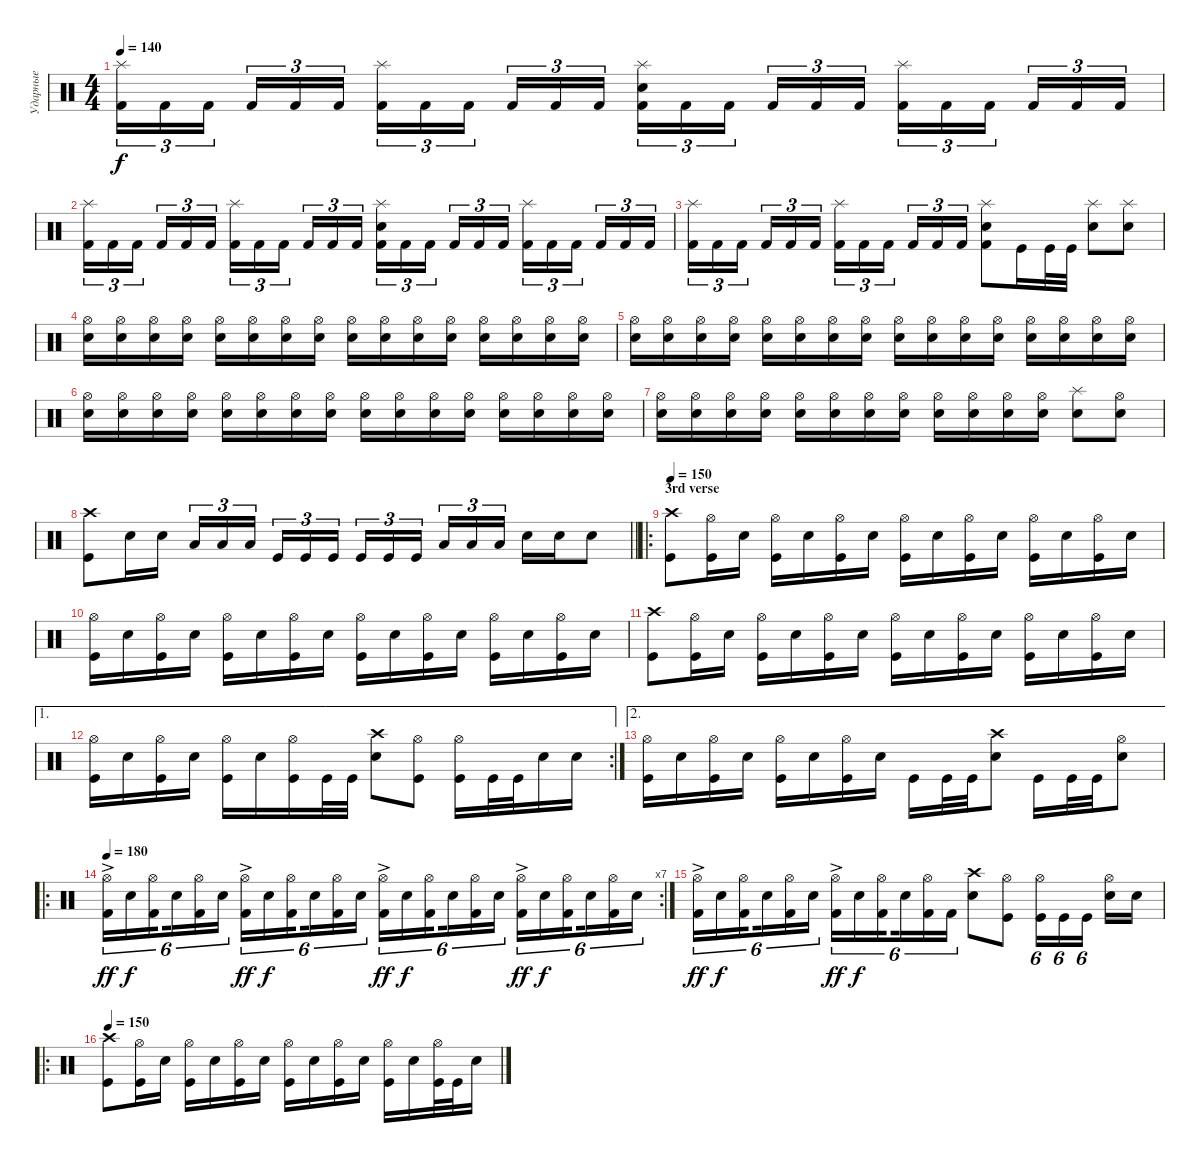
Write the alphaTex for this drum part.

\track ("Ударные" "Ударные") {instrument percussion}
\staff {score}
\articulation defaults
\ts (4 4)
\tempo 140
\clef neutral
\ks c
("Splash (hit)" "Kick (hit) 2").16{tu (3 2) dy f} "Kick (hit) 2".16{tu (3 2)} "Kick (hit) 2".16{tu (3 2) beam splitsecondary} "Kick (hit) 2".16{tu (3 2)} "Kick (hit) 2".16{tu (3 2)} "Kick (hit) 2".16{tu (3 2)} ("Splash (hit)" "Kick (hit) 2").16{tu (3 2)} "Kick (hit) 2".16{tu (3 2)} "Kick (hit) 2".16{tu (3 2) beam splitsecondary} "Kick (hit) 2".16{tu (3 2)} "Kick (hit) 2".16{tu (3 2)} "Kick (hit) 2".16{tu (3 2)} ("Splash (hit)" "Snare (hit) 2" "Kick (hit) 2").16{tu (3 2)} "Kick (hit) 2".16{tu (3 2)} "Kick (hit) 2".16{tu (3 2) beam splitsecondary} "Kick (hit) 2".16{tu (3 2)} "Kick (hit) 2".16{tu (3 2)} "Kick (hit) 2".16{tu (3 2)} ("Splash (hit)" "Kick (hit) 2").16{tu (3 2)} "Kick (hit) 2".16{tu (3 2)} "Kick (hit) 2".16{tu (3 2) beam splitsecondary} "Kick (hit) 2".16{tu (3 2)} "Kick (hit) 2".16{tu (3 2)} "Kick (hit) 2".16{tu (3 2)} |
("Splash (hit)" "Kick (hit) 2").16{tu (3 2)} "Kick (hit) 2".16{tu (3 2)} "Kick (hit) 2".16{tu (3 2) beam splitsecondary} "Kick (hit) 2".16{tu (3 2)} "Kick (hit) 2".16{tu (3 2)} "Kick (hit) 2".16{tu (3 2)} ("Splash (hit)" "Kick (hit) 2").16{tu (3 2)} "Kick (hit) 2".16{tu (3 2)} "Kick (hit) 2".16{tu (3 2) beam splitsecondary} "Kick (hit) 2".16{tu (3 2)} "Kick (hit) 2".16{tu (3 2)} "Kick (hit) 2".16{tu (3 2)} ("Splash (hit)" "Snare (hit) 2" "Kick (hit) 2").16{tu (3 2)} "Kick (hit) 2".16{tu (3 2)} "Kick (hit) 2".16{tu (3 2) beam splitsecondary} "Kick (hit) 2".16{tu (3 2)} "Kick (hit) 2".16{tu (3 2)} "Kick (hit) 2".16{tu (3 2)} ("Splash (hit)" "Kick (hit) 2").16{tu (3 2)} "Kick (hit) 2".16{tu (3 2)} "Kick (hit) 2".16{tu (3 2) beam splitsecondary} "Kick (hit) 2".16{tu (3 2)} "Kick (hit) 2".16{tu (3 2)} "Kick (hit) 2".16{tu (3 2)} |
("Splash (hit)" "Kick (hit) 2").16{tu (3 2)} "Kick (hit) 2".16{tu (3 2)} "Kick (hit) 2".16{tu (3 2) beam splitsecondary} "Kick (hit) 2".16{tu (3 2)} "Kick (hit) 2".16{tu (3 2)} "Kick (hit) 2".16{tu (3 2)} ("Splash (hit)" "Kick (hit) 2").16{tu (3 2)} "Kick (hit) 2".16{tu (3 2)} "Kick (hit) 2".16{tu (3 2) beam splitsecondary} "Kick (hit) 2".16{tu (3 2)} "Kick (hit) 2".16{tu (3 2)} "Kick (hit) 2".16{tu (3 2)} ("Splash (hit)" "Snare (hit) 2" "Kick (hit) 2").8 "Kick (hit)".16 "Kick (hit)".32 "Kick (hit)".32 ("Splash (hit)" "Snare (hit) 2").8 ("Splash (hit)" "Snare (hit) 2").8 |
("Snare (hit) 2" "Hi-Hat (open)").16 ("Snare (hit) 2" "Hi-Hat (open)").16 ("Snare (hit) 2" "Hi-Hat (open)").16 ("Snare (hit) 2" "Hi-Hat (open)").16 ("Snare (hit) 2" "Hi-Hat (open)").16 ("Snare (hit) 2" "Hi-Hat (open)").16 ("Snare (hit) 2" "Hi-Hat (open)").16 ("Snare (hit) 2" "Hi-Hat (open)").16 ("Snare (hit) 2" "Hi-Hat (open)").16 ("Snare (hit) 2" "Hi-Hat (open)").16 ("Snare (hit) 2" "Hi-Hat (open)").16 ("Snare (hit) 2" "Hi-Hat (open)").16 ("Snare (hit) 2" "Hi-Hat (open)").16 ("Snare (hit) 2" "Hi-Hat (open)").16 ("Snare (hit) 2" "Hi-Hat (open)").16 ("Snare (hit) 2" "Hi-Hat (open)").16 |
("Snare (hit) 2" "Hi-Hat (open)").16 ("Snare (hit) 2" "Hi-Hat (open)").16 ("Snare (hit) 2" "Hi-Hat (open)").16 ("Snare (hit) 2" "Hi-Hat (open)").16 ("Snare (hit) 2" "Hi-Hat (open)").16 ("Snare (hit) 2" "Hi-Hat (open)").16 ("Snare (hit) 2" "Hi-Hat (open)").16 ("Snare (hit) 2" "Hi-Hat (open)").16 ("Snare (hit) 2" "Hi-Hat (open)").16 ("Snare (hit) 2" "Hi-Hat (open)").16 ("Snare (hit) 2" "Hi-Hat (open)").16 ("Snare (hit) 2" "Hi-Hat (open)").16 ("Snare (hit) 2" "Hi-Hat (open)").16 ("Snare (hit) 2" "Hi-Hat (open)").16 ("Snare (hit) 2" "Hi-Hat (open)").16 ("Snare (hit) 2" "Hi-Hat (open)").16 |
("Snare (hit) 2" "Hi-Hat (open)").16 ("Snare (hit) 2" "Hi-Hat (open)").16 ("Snare (hit) 2" "Hi-Hat (open)").16 ("Snare (hit) 2" "Hi-Hat (open)").16 ("Snare (hit) 2" "Hi-Hat (open)").16 ("Snare (hit) 2" "Hi-Hat (open)").16 ("Snare (hit) 2" "Hi-Hat (open)").16 ("Snare (hit) 2" "Hi-Hat (open)").16 ("Snare (hit) 2" "Hi-Hat (open)").16 ("Snare (hit) 2" "Hi-Hat (open)").16 ("Snare (hit) 2" "Hi-Hat (open)").16 ("Snare (hit) 2" "Hi-Hat (open)").16 ("Snare (hit) 2" "Hi-Hat (open)").16 ("Snare (hit) 2" "Hi-Hat (open)").16 ("Snare (hit) 2" "Hi-Hat (open)").16 ("Snare (hit) 2" "Hi-Hat (open)").16 |
("Snare (hit) 2" "Hi-Hat (open)").16 ("Snare (hit) 2" "Hi-Hat (open)").16 ("Snare (hit) 2" "Hi-Hat (open)").16 ("Snare (hit) 2" "Hi-Hat (open)").16 ("Snare (hit) 2" "Hi-Hat (open)").16 ("Snare (hit) 2" "Hi-Hat (open)").16 ("Snare (hit) 2" "Hi-Hat (open)").16 ("Snare (hit) 2" "Hi-Hat (open)").16 ("Snare (hit) 2" "Hi-Hat (open)").16 ("Snare (hit) 2" "Hi-Hat (open)").16 ("Snare (hit) 2" "Hi-Hat (open)").16 ("Snare (hit) 2" "Hi-Hat (open)").16 ("Splash (hit)" "Snare (hit) 2").8 ("Hi-Hat (open)" "Snare (hit) 2").8 |
\barLineRight lightlight
("Crash high (hit)" "Kick (hit)").8 "Snare (hit) 2".16 "Snare (hit) 2".16 "Low Floor Tom (hit)".16{tu (3 2)} "Low Floor Tom (hit)".16{tu (3 2)} "Low Floor Tom (hit)".16{tu (3 2) beam splitsecondary} "Kick (hit)".16{tu (3 2)} "Kick (hit)".16{tu (3 2)} "Kick (hit)".16{tu (3 2)} "Kick (hit)".16{tu (3 2)} "Kick (hit)".16{tu (3 2)} "Kick (hit)".16{tu (3 2) beam splitsecondary} "Low Floor Tom (hit)".16{tu (3 2)} "Low Floor Tom (hit)".16{tu (3 2)} "Low Floor Tom (hit)".16{tu (3 2)} "Snare (hit) 2".16 "Snare (hit) 2".16 "Snare (hit) 2".8 |
\ro
\section ("" "3rd verse")
\tempo 150
("Crash high (hit)" "Kick (hit)").8 ("Hi-Hat (open)" "Kick (hit)").16 "Snare (hit) 2".16 ("Hi-Hat (open)" "Kick (hit)").16 "Snare (hit) 2".16 ("Hi-Hat (open)" "Kick (hit)").16 "Snare (hit) 2".16 ("Hi-Hat (open)" "Kick (hit)").16 "Snare (hit) 2".16 ("Hi-Hat (open)" "Kick (hit)").16 "Snare (hit) 2".16 ("Hi-Hat (open)" "Kick (hit)").16 "Snare (hit) 2".16 ("Hi-Hat (open)" "Kick (hit)").16 "Snare (hit) 2".16 |
("Hi-Hat (open)" "Kick (hit)").16 "Snare (hit) 2".16 ("Hi-Hat (open)" "Kick (hit)").16 "Snare (hit) 2".16 ("Hi-Hat (open)" "Kick (hit)").16 "Snare (hit) 2".16 ("Hi-Hat (open)" "Kick (hit)").16 "Snare (hit) 2".16 ("Hi-Hat (open)" "Kick (hit)").16 "Snare (hit) 2".16 ("Hi-Hat (open)" "Kick (hit)").16 "Snare (hit) 2".16 ("Hi-Hat (open)" "Kick (hit)").16 "Snare (hit) 2".16 ("Hi-Hat (open)" "Kick (hit)").16 "Snare (hit) 2".16 |
("Crash high (hit)" "Kick (hit)").8 ("Hi-Hat (open)" "Kick (hit)").16 "Snare (hit) 2".16 ("Hi-Hat (open)" "Kick (hit)").16 "Snare (hit) 2".16 ("Hi-Hat (open)" "Kick (hit)").16 "Snare (hit) 2".16 ("Hi-Hat (open)" "Kick (hit)").16 "Snare (hit) 2".16 ("Hi-Hat (open)" "Kick (hit)").16 "Snare (hit) 2".16 ("Hi-Hat (open)" "Kick (hit)").16 "Snare (hit) 2".16 ("Hi-Hat (open)" "Kick (hit)").16 "Snare (hit) 2".16 |
\ae 1
\rc 2
("Hi-Hat (open)" "Kick (hit)").16 "Snare (hit) 2".16 ("Hi-Hat (open)" "Kick (hit)").16 "Snare (hit) 2".16 ("Hi-Hat (open)" "Kick (hit)").16 "Snare (hit) 2".16 ("Hi-Hat (open)" "Kick (hit)").16 "Kick (hit)".32 "Kick (hit)".32 ("Crash high (hit)" "Snare (hit) 2").8 ("Hi-Hat (open)" "Kick (hit)").8 ("Hi-Hat (open)" "Kick (hit)").16 "Kick (hit)".32 "Kick (hit)".32 "Snare (hit) 2".16 "Snare (hit) 2".16 |
\ae 2
("Hi-Hat (open)" "Kick (hit)").16 "Snare (hit) 2".16 ("Hi-Hat (open)" "Kick (hit)").16 "Snare (hit) 2".16 ("Hi-Hat (open)" "Kick (hit)").16 "Snare (hit) 2".16 ("Hi-Hat (open)" "Kick (hit)").16 "Snare (hit) 2".16 "Kick (hit)".16 "Kick (hit)".32 "Kick (hit)".32 ("Crash high (hit)" "Snare (hit) 2").8 "Kick (hit)".16 "Kick (hit)".32 "Kick (hit)".32 ("Hi-Hat (open)" "Snare (hit) 2").8 |
\ro
\rc 7
\tempo 180
("Hi-Hat (open)"{ac} "Kick (hit) 2").16{tu (6 4) dy ff} "Snare (hit) 2".16{tu (6 4) dy f} ("Hi-Hat (open)" "Kick (hit) 2").16{tu (6 4) beam splitsecondary} "Snare (hit) 2".16{tu (6 4)} ("Hi-Hat (open)" "Kick (hit) 2").16{tu (6 4)} "Snare (hit) 2".16{tu (6 4)} ("Hi-Hat (open)"{ac} "Kick (hit) 2").16{tu (6 4) dy ff} "Snare (hit) 2".16{tu (6 4) dy f} ("Hi-Hat (open)" "Kick (hit) 2").16{tu (6 4) beam splitsecondary} "Snare (hit) 2".16{tu (6 4)} ("Hi-Hat (open)" "Kick (hit) 2").16{tu (6 4)} "Snare (hit) 2".16{tu (6 4)} ("Hi-Hat (open)"{ac} "Kick (hit) 2").16{tu (6 4) dy ff} "Snare (hit) 2".16{tu (6 4) dy f} ("Hi-Hat (open)" "Kick (hit) 2").16{tu (6 4) beam splitsecondary} "Snare (hit) 2".16{tu (6 4)} ("Hi-Hat (open)" "Kick (hit) 2").16{tu (6 4)} "Snare (hit) 2".16{tu (6 4)} ("Hi-Hat (open)"{ac} "Kick (hit) 2").16{tu (6 4) dy ff} "Snare (hit) 2".16{tu (6 4) dy f} ("Hi-Hat (open)" "Kick (hit) 2").16{tu (6 4) beam splitsecondary} "Snare (hit) 2".16{tu (6 4)} ("Hi-Hat (open)" "Kick (hit) 2").16{tu (6 4)} "Snare (hit) 2".16{tu (6 4)} |
("Hi-Hat (open)"{ac} "Kick (hit) 2").16{tu (6 4) dy ff} "Snare (hit) 2".16{tu (6 4) dy f} ("Hi-Hat (open)" "Kick (hit) 2").16{tu (6 4) beam splitsecondary} "Snare (hit) 2".16{tu (6 4)} ("Hi-Hat (open)" "Kick (hit) 2").16{tu (6 4)} "Snare (hit) 2".16{tu (6 4)} ("Hi-Hat (open)"{ac} "Kick (hit) 2").16{tu (6 4) dy ff} "Snare (hit) 2".16{tu (6 4) dy f} ("Hi-Hat (open)" "Kick (hit) 2").16{tu (6 4) beam splitsecondary} "Snare (hit) 2".16{tu (6 4)} ("Hi-Hat (open)" "Kick (hit) 2").16{tu (6 4)} "Kick (hit) 2".16{tu (6 4)} ("Crash high (hit)" "Snare (hit) 2").8 ("Hi-Hat (open)" "Kick (hit)").8 ("Hi-Hat (open)" "Kick (hit)").16{tu (6 4)} "Kick (hit)".16{tu (6 4)} "Kick (hit)".16{tu (6 4) beam splitsecondary} ("Hi-Hat (open)" "Snare (hit) 2").16 "Snare (hit) 2".16 |
\ro
\tempo 150
("Crash high (hit)" "Kick (hit)").8 ("Hi-Hat (open)" "Kick (hit)").16 "Snare (hit) 2".16 ("Hi-Hat (open)" "Kick (hit)").16 "Snare (hit) 2".16 ("Hi-Hat (open)" "Kick (hit)").16 "Snare (hit) 2".16 ("Hi-Hat (open)" "Kick (hit)").16 "Snare (hit) 2".16 ("Hi-Hat (open)" "Kick (hit)").16 "Snare (hit) 2".16 ("Hi-Hat (open)" "Kick (hit)").16 "Snare (hit) 2".16 ("Hi-Hat (open)" "Kick (hit)").32 "Kick (hit)".32 "Snare (hit) 2".16
